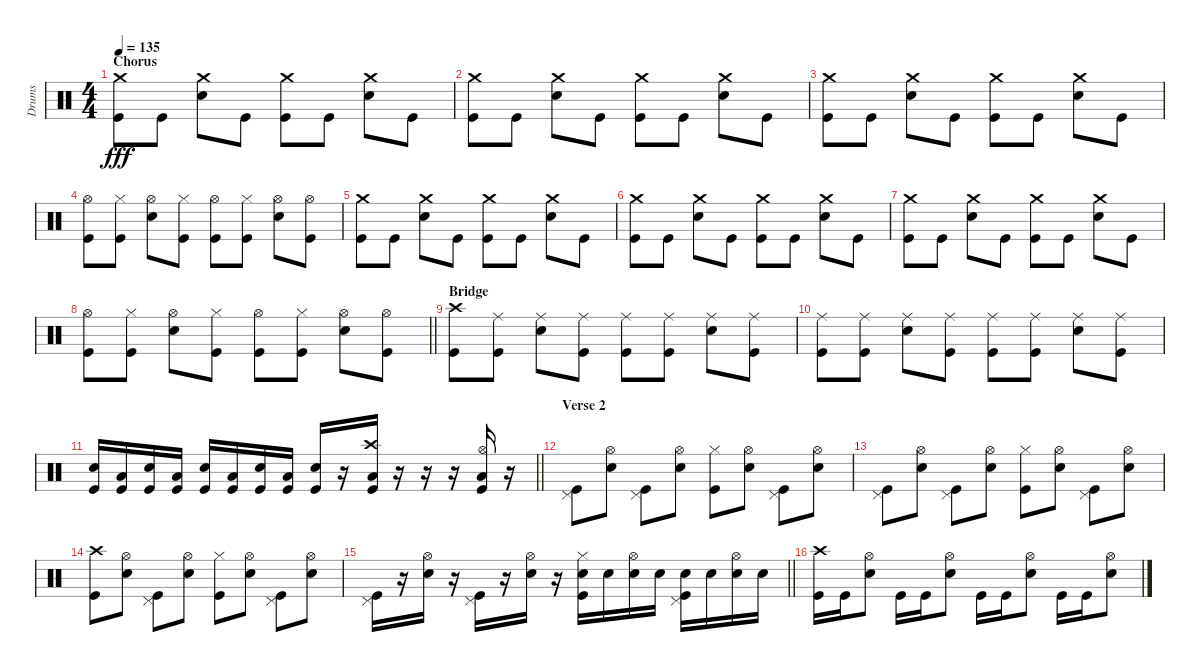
\track ("Drums" "Drums") {instrument percussion}
\staff {score}
\articulation defaults
\ts (4 4)
\section ("" "Chorus")
\tempo 135
\clef neutral
\ks c
("Crash medium (hit)" "Kick (hit)").8{dy fff} "Kick (hit)".8 ("Crash medium (hit)" "Snare (hit) 2").8 "Kick (hit)".8 ("Crash medium (hit)" "Kick (hit)").8 "Kick (hit)".8 ("Crash medium (hit)" "Snare (hit) 2").8 "Kick (hit)".8 |
("Crash medium (hit)" "Kick (hit)").8 "Kick (hit)".8 ("Crash medium (hit)" "Snare (hit) 2").8 "Kick (hit)".8 ("Crash medium (hit)" "Kick (hit)").8 "Kick (hit)".8 ("Crash medium (hit)" "Snare (hit) 2").8 "Kick (hit)".8 |
("Crash medium (hit)" "Kick (hit)").8 "Kick (hit)".8 ("Crash medium (hit)" "Snare (hit) 2").8 "Kick (hit)".8 ("Crash medium (hit)" "Kick (hit)").8 "Kick (hit)".8 ("Crash medium (hit)" "Snare (hit) 2").8 "Kick (hit)".8 |
("Hi-Hat (open)" "Kick (hit)").8 ("Hi-Hat (closed)" "Kick (hit)").8 ("Hi-Hat (open)" "Snare (hit) 2").8 ("Hi-Hat (closed)" "Kick (hit)").8 ("Hi-Hat (open)" "Kick (hit)").8 ("Hi-Hat (closed)" "Kick (hit)").8 ("Hi-Hat (open)" "Snare (hit) 2").8 ("Hi-Hat (open)" "Kick (hit)").8 |
("Crash medium (hit)" "Kick (hit)").8 "Kick (hit)".8 ("Crash medium (hit)" "Snare (hit) 2").8 "Kick (hit)".8 ("Crash medium (hit)" "Kick (hit)").8 "Kick (hit)".8 ("Crash medium (hit)" "Snare (hit) 2").8 "Kick (hit)".8 |
("Crash medium (hit)" "Kick (hit)").8 "Kick (hit)".8 ("Crash medium (hit)" "Snare (hit) 2").8 "Kick (hit)".8 ("Crash medium (hit)" "Kick (hit)").8 "Kick (hit)".8 ("Crash medium (hit)" "Snare (hit) 2").8 "Kick (hit)".8 |
("Crash medium (hit)" "Kick (hit)").8 "Kick (hit)".8 ("Crash medium (hit)" "Snare (hit) 2").8 "Kick (hit)".8 ("Crash medium (hit)" "Kick (hit)").8 "Kick (hit)".8 ("Crash medium (hit)" "Snare (hit) 2").8 "Kick (hit)".8 |
\barLineRight lightlight
("Hi-Hat (open)" "Kick (hit)").8 ("Hi-Hat (closed)" "Kick (hit)").8 ("Hi-Hat (open)" "Snare (hit) 2").8 ("Hi-Hat (closed)" "Kick (hit)").8 ("Hi-Hat (open)" "Kick (hit)").8 ("Hi-Hat (closed)" "Kick (hit)").8 ("Hi-Hat (open)" "Snare (hit) 2").8 ("Hi-Hat (open)" "Kick (hit)").8 |
\section ("" "Bridge")
("Crash high (hit)" "Kick (hit)").8 ("Ride (middle)" "Kick (hit)").8 ("Ride (middle)" "Snare (hit) 2").8 ("Ride (middle)" "Kick (hit)").8 ("Ride (middle)" "Kick (hit)").8 ("Ride (middle)" "Kick (hit)").8 ("Ride (middle)" "Snare (hit) 2").8 ("Ride (middle)" "Kick (hit)").8 |
("Ride (middle)" "Kick (hit)").8 ("Ride (middle)" "Kick (hit)").8 ("Ride (middle)" "Snare (hit) 2").8 ("Ride (middle)" "Kick (hit)").8 ("Ride (middle)" "Kick (hit)").8 ("Ride (middle)" "Kick (hit)").8 ("Ride (middle)" "Snare (hit) 2").8 ("Ride (middle)" "Kick (hit)").8 |
\barLineRight lightlight
("Snare (hit) 2" "Kick (hit)").16 ("Low Tom (hit)" "Kick (hit)").16 ("Snare (hit) 2" "Kick (hit)").16 ("Low Tom (hit)" "Kick (hit)").16 ("Snare (hit) 2" "Kick (hit)").16 ("Low Tom (hit)" "Kick (hit)").16 ("Snare (hit) 2" "Kick (hit)").16 ("Low Tom (hit)" "Kick (hit)").16 ("Snare (hit) 2" "Kick (hit)").16 r.16 ("Crash high (hit)" "Low Tom (hit)" "Kick (hit)").16 r.16 r.16 r.16 ("Hi-Hat (open)" "Low Tom (hit)" "Kick (hit)").16 r.16 |
\section ("" "Verse 2")
("Pedal Hi-Hat (hit)" "Kick (hit)").8 ("Hi-Hat (open)" "Snare (hit) 2").8 ("Pedal Hi-Hat (hit)" "Kick (hit)").8 ("Hi-Hat (open)" "Snare (hit) 2").8 ("Hi-Hat (closed)" "Kick (hit)").8 ("Hi-Hat (open)" "Snare (hit) 2").8 ("Pedal Hi-Hat (hit)" "Kick (hit)").8 ("Hi-Hat (open)" "Snare (hit) 2").8 |
("Pedal Hi-Hat (hit)" "Kick (hit)").8 ("Hi-Hat (open)" "Snare (hit) 2").8 ("Pedal Hi-Hat (hit)" "Kick (hit)").8 ("Hi-Hat (open)" "Snare (hit) 2").8 ("Hi-Hat (closed)" "Kick (hit)").8 ("Hi-Hat (open)" "Snare (hit) 2").8 ("Pedal Hi-Hat (hit)" "Kick (hit)").8 ("Hi-Hat (open)" "Snare (hit) 2").8 |
("Crash high (hit)" "Kick (hit)").8 ("Hi-Hat (open)" "Snare (hit) 2").8 ("Pedal Hi-Hat (hit)" "Kick (hit)").8 ("Hi-Hat (open)" "Snare (hit) 2").8 ("Hi-Hat (closed)" "Kick (hit)").8 ("Hi-Hat (open)" "Snare (hit) 2").8 ("Pedal Hi-Hat (hit)" "Kick (hit)").8 ("Hi-Hat (open)" "Snare (hit) 2").8 |
\barLineRight lightlight
("Pedal Hi-Hat (hit)" "Kick (hit)").16 r.16 ("Hi-Hat (open)" "Snare (hit) 2").16 r.16 ("Pedal Hi-Hat (hit)" "Kick (hit)").16 r.16 ("Hi-Hat (open)" "Snare (hit) 2").16 r.16 ("Hi-Hat (closed)" "Snare (hit) 2" "Kick (hit)").16 "Snare (hit) 2".16 ("Hi-Hat (open)" "Snare (hit) 2").16 "Snare (hit) 2".16 ("Pedal Hi-Hat (hit)" "Snare (hit) 2" "Kick (hit)").16 "Snare (hit) 2".16 ("Hi-Hat (open)" "Snare (hit) 2").16 "Snare (hit) 2".16 |
("Crash high (hit)" "Kick (hit)").16 "Kick (hit)".16 ("Hi-Hat (open)" "Snare (hit) 2").8 "Kick (hit)".16 "Kick (hit)".16 ("Hi-Hat (open)" "Snare (hit) 2").8 "Kick (hit)".16 "Kick (hit)".16 ("Hi-Hat (open)" "Snare (hit) 2").8 "Kick (hit)".16 "Kick (hit)".16 ("Hi-Hat (open)" "Snare (hit) 2").8
